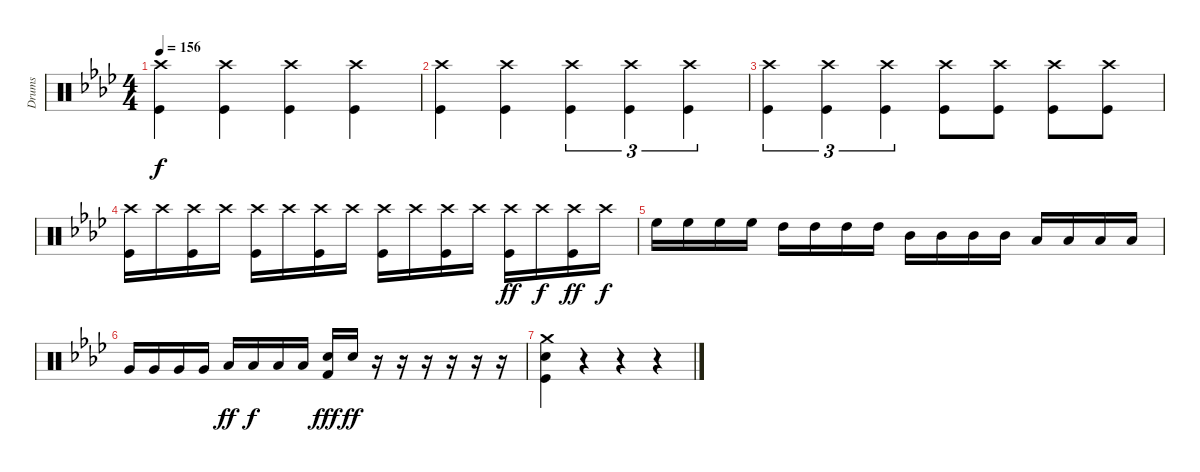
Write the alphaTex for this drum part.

\track ("Drums" "Drums") {instrument percussion}
\staff {score}
\articulation defaults
\ts (4 4)
\tempo 156
\clef neutral
\ks ab
("Crash high (hit)" "Kick (hit)").4{dy f} ("Crash high (hit)" "Kick (hit)").4 ("Crash high (hit)" "Kick (hit)").4 ("Crash high (hit)" "Kick (hit)").4 |
("Crash high (hit)" "Kick (hit)").4 ("Crash high (hit)" "Kick (hit)").4 ("Crash high (hit)" "Kick (hit)").4{tu (3 2)} ("Crash high (hit)" "Kick (hit)").4{tu (3 2)} ("Crash high (hit)" "Kick (hit)").4{tu (3 2)} |
("Crash high (hit)" "Kick (hit)").4{tu (3 2)} ("Crash high (hit)" "Kick (hit)").4{tu (3 2)} ("Crash high (hit)" "Kick (hit)").4{tu (3 2)} ("Crash high (hit)" "Kick (hit)").8 ("Crash high (hit)" "Kick (hit)").8 ("Crash high (hit)" "Kick (hit)").8 ("Crash high (hit)" "Kick (hit)").8 |
("Crash high (hit)" "Kick (hit)").16 "Crash high (hit)".16 ("Crash high (hit)" "Kick (hit)").16 "Crash high (hit)".16 ("Crash high (hit)" "Kick (hit)").16 "Crash high (hit)".16 ("Crash high (hit)" "Kick (hit)").16 "Crash high (hit)".16 ("Crash high (hit)" "Kick (hit)").16 "Crash high (hit)".16 ("Crash high (hit)" "Kick (hit)").16 "Crash high (hit)".16 ("Crash high (hit)" "Kick (hit)").16{dy ff} "Crash high (hit)".16{dy f} ("Crash high (hit)" "Kick (hit)").16{dy ff} "Crash high (hit)".16{dy f} |
"High Floor Tom (hit)".16 "High Floor Tom (hit)".16 "High Floor Tom (hit)".16 "High Floor Tom (hit)".16 "High Tom (hit)".16 "High Tom (hit)".16 "High Tom (hit)".16 "High Tom (hit)".16 "Mid Tom (hit)".16 "Mid Tom (hit)".16 "Mid Tom (hit)".16 "Mid Tom (hit)".16 "Low Tom (hit)".16 "Low Tom (hit)".16 "Low Tom (hit)".16 "Low Tom (hit)".16 |
"Very Low Tom (hit)".16 "Very Low Tom (hit)".16 "Very Low Tom (hit)".16 "Very Low Tom (hit)".16 "Low Floor Tom (hit)".16{dy ff} "Low Floor Tom (hit)".16{dy f} "Low Floor Tom (hit)".16 "Low Floor Tom (hit)".16 ("Snare (hit) 2" "Kick (hit) 2").16{dy fff} "Snare (hit) 2".16{dy ff} r.16 r.16 r.16 r.16 r.16 r.16 |
("Crash medium (hit)" "Snare (hit) 2" "Kick (hit)").4 r.4 r.4 r.4
